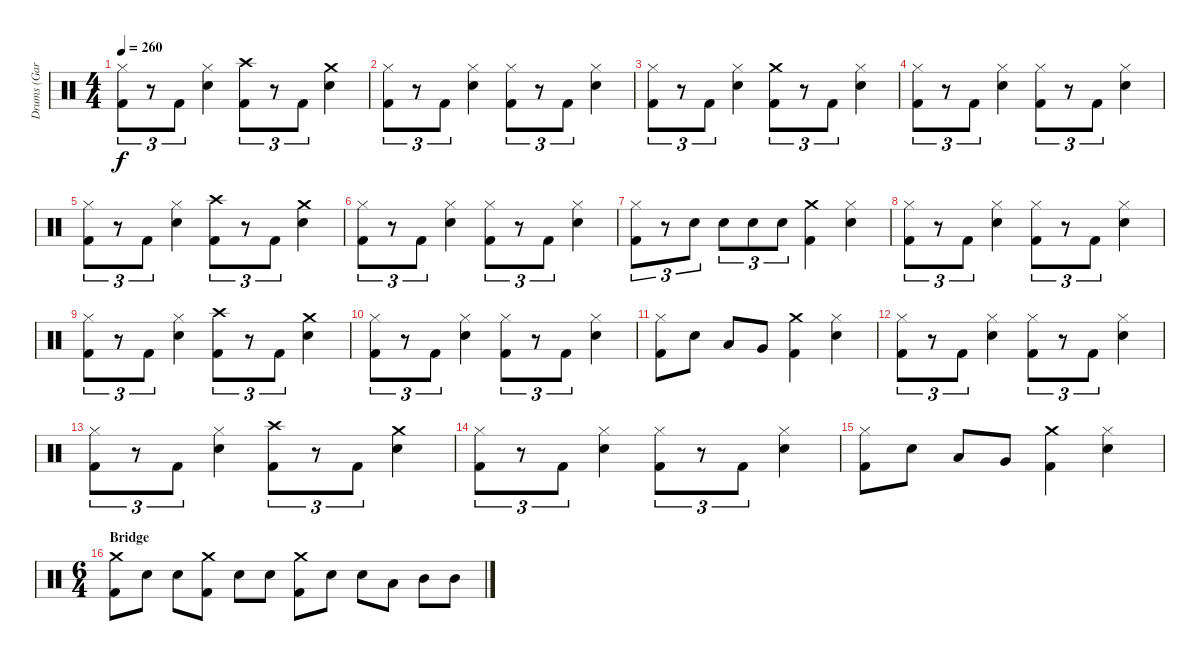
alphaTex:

\track ("Drums (Gar Samuelson)" "Drums (Gar") {instrument percussion}
\staff {score}
\articulation defaults
\ts (4 4)
\tempo 260
\clef neutral
\ks c
("Hi-Hat (closed)" "Kick (hit) 2").8{tu (3 2) dy f} r.8{tu (3 2)} "Kick (hit) 2".8{tu (3 2)} ("Hi-Hat (closed)" "Snare (hit) 2").4 ("Crash high (hit)" "Kick (hit) 2").8{tu (3 2)} r.8{tu (3 2)} "Kick (hit) 2".8{tu (3 2)} ("Crash medium (hit)" "Snare (hit) 2").4 |
("Hi-Hat (closed)" "Kick (hit) 2").8{tu (3 2)} r.8{tu (3 2)} "Kick (hit) 2".8{tu (3 2)} ("Hi-Hat (closed)" "Snare (hit) 2").4 ("Hi-Hat (closed)" "Kick (hit) 2").8{tu (3 2)} r.8{tu (3 2)} "Kick (hit) 2".8{tu (3 2)} ("Hi-Hat (closed)" "Snare (hit) 2").4 |
("Hi-Hat (closed)" "Kick (hit) 2").8{tu (3 2)} r.8{tu (3 2)} "Kick (hit) 2".8{tu (3 2)} ("Hi-Hat (closed)" "Snare (hit) 2").4 ("Crash medium (hit)" "Kick (hit) 2").8{tu (3 2)} r.8{tu (3 2)} "Kick (hit) 2".8{tu (3 2)} ("Hi-Hat (closed)" "Snare (hit) 2").4 |
("Hi-Hat (closed)" "Kick (hit) 2").8{tu (3 2)} r.8{tu (3 2)} "Kick (hit) 2".8{tu (3 2)} ("Hi-Hat (closed)" "Snare (hit) 2").4 ("Hi-Hat (closed)" "Kick (hit) 2").8{tu (3 2)} r.8{tu (3 2)} "Kick (hit) 2".8{tu (3 2)} ("Hi-Hat (closed)" "Snare (hit) 2").4 |
("Hi-Hat (closed)" "Kick (hit) 2").8{tu (3 2)} r.8{tu (3 2)} "Kick (hit) 2".8{tu (3 2)} ("Hi-Hat (closed)" "Snare (hit) 2").4 ("Crash high (hit)" "Kick (hit) 2").8{tu (3 2)} r.8{tu (3 2)} "Kick (hit) 2".8{tu (3 2)} ("Crash medium (hit)" "Snare (hit) 2").4 |
("Hi-Hat (closed)" "Kick (hit) 2").8{tu (3 2)} r.8{tu (3 2)} "Kick (hit) 2".8{tu (3 2)} ("Hi-Hat (closed)" "Snare (hit) 2").4 ("Hi-Hat (closed)" "Kick (hit) 2").8{tu (3 2)} r.8{tu (3 2)} "Kick (hit) 2".8{tu (3 2)} ("Hi-Hat (closed)" "Snare (hit) 2").4 |
("Hi-Hat (closed)" "Kick (hit) 2").8{tu (3 2)} r.8{tu (3 2)} "Snare (hit) 2".8{tu (3 2)} "Snare (hit) 2".8{tu (3 2)} "Snare (hit) 2".8{tu (3 2)} "Snare (hit) 2".8{tu (3 2)} ("Crash medium (hit)" "Kick (hit) 2").4 ("Hi-Hat (closed)" "Snare (hit) 2").4 |
("Hi-Hat (closed)" "Kick (hit) 2").8{tu (3 2)} r.8{tu (3 2)} "Kick (hit) 2".8{tu (3 2)} ("Hi-Hat (closed)" "Snare (hit) 2").4 ("Hi-Hat (closed)" "Kick (hit) 2").8{tu (3 2)} r.8{tu (3 2)} "Kick (hit) 2".8{tu (3 2)} ("Hi-Hat (closed)" "Snare (hit) 2").4 |
("Hi-Hat (closed)" "Kick (hit) 2").8{tu (3 2)} r.8{tu (3 2)} "Kick (hit) 2".8{tu (3 2)} ("Hi-Hat (closed)" "Snare (hit) 2").4 ("Crash high (hit)" "Kick (hit) 2").8{tu (3 2)} r.8{tu (3 2)} "Kick (hit) 2".8{tu (3 2)} ("Crash medium (hit)" "Snare (hit) 2").4 |
("Hi-Hat (closed)" "Kick (hit) 2").8{tu (3 2)} r.8{tu (3 2)} "Kick (hit) 2".8{tu (3 2)} ("Hi-Hat (closed)" "Snare (hit) 2").4 ("Hi-Hat (closed)" "Kick (hit) 2").8{tu (3 2)} r.8{tu (3 2)} "Kick (hit) 2".8{tu (3 2)} ("Hi-Hat (closed)" "Snare (hit) 2").4 |
("Hi-Hat (closed)" "Kick (hit) 2").8 "Snare (hit) 2".8 "Low Tom (hit)".8 "Very Low Tom (hit)".8 ("Crash medium (hit)" "Kick (hit) 2").4 ("Hi-Hat (closed)" "Snare (hit) 2").4 |
("Hi-Hat (closed)" "Kick (hit) 2").8{tu (3 2)} r.8{tu (3 2)} "Kick (hit) 2".8{tu (3 2)} ("Hi-Hat (closed)" "Snare (hit) 2").4 ("Hi-Hat (closed)" "Kick (hit) 2").8{tu (3 2)} r.8{tu (3 2)} "Kick (hit) 2".8{tu (3 2)} ("Hi-Hat (closed)" "Snare (hit) 2").4 |
("Hi-Hat (closed)" "Kick (hit) 2").8{tu (3 2)} r.8{tu (3 2)} "Kick (hit) 2".8{tu (3 2)} ("Hi-Hat (closed)" "Snare (hit) 2").4 ("Crash high (hit)" "Kick (hit) 2").8{tu (3 2)} r.8{tu (3 2)} "Kick (hit) 2".8{tu (3 2)} ("Crash medium (hit)" "Snare (hit) 2").4 |
("Hi-Hat (closed)" "Kick (hit) 2").8{tu (3 2)} r.8{tu (3 2)} "Kick (hit) 2".8{tu (3 2)} ("Hi-Hat (closed)" "Snare (hit) 2").4 ("Hi-Hat (closed)" "Kick (hit) 2").8{tu (3 2)} r.8{tu (3 2)} "Kick (hit) 2".8{tu (3 2)} ("Hi-Hat (closed)" "Snare (hit) 2").4 |
("Hi-Hat (closed)" "Kick (hit) 2").8 "Snare (hit) 2".8 "Low Tom (hit)".8 "Very Low Tom (hit)".8 ("Crash medium (hit)" "Kick (hit) 2").4 ("Hi-Hat (closed)" "Snare (hit) 2").4 |
\ts (6 4)
\section ("" "Bridge")
("Crash medium (hit)" "Kick (hit) 2").8 "Snare (hit) 2".8 "Snare (hit) 2".8 ("Crash medium (hit)" "Kick (hit) 2").8 "Snare (hit) 2".8 "Snare (hit) 2".8 ("Crash medium (hit)" "Kick (hit) 2").8 "Snare (hit) 2".8 "Snare (hit) 2".8 "Low Tom (hit)".8 "Mid Tom (hit)".8 "Mid Tom (hit)".8
